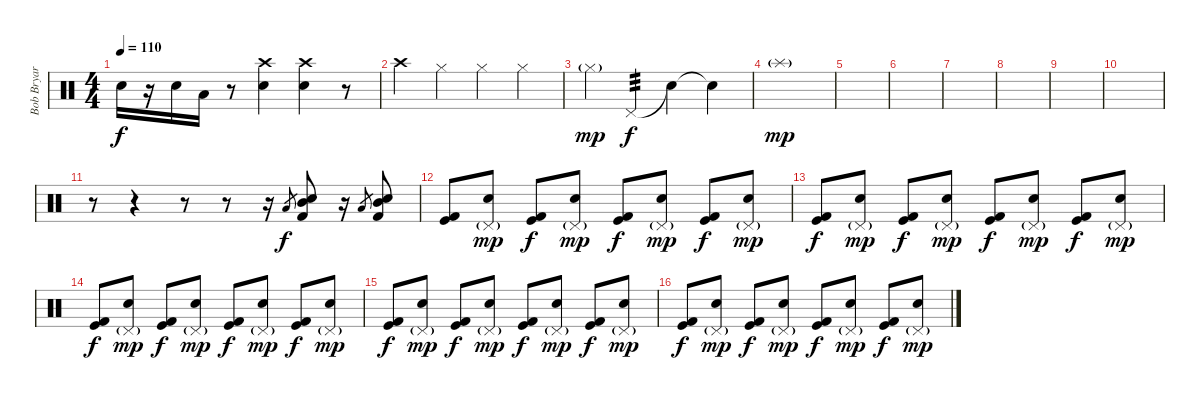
\track ("Bob Bryar [Drums]" "Bob Bryar ") {instrument percussion}
\staff {score}
\articulation defaults
\ts (4 4)
\tempo 110
\clef neutral
\ks c "Electric Snare (hit)".16{dy f}
r.16 "Electric Snare (hit)".16 "Low Tom (hit)".16 r.8 ("Crash high (hit)" "Electric Snare (hit)").4 ("Crash high (hit)" "Electric Snare (hit)").4 r.8 |
"Crash high (hit)".4 "Hi-Hat (closed)".4 "Hi-Hat (closed)".4 "Hi-Hat (closed)".4 |
"Hi-Hat (closed)"{g}.4{dy mp volume 0} "Pedal Hi-Hat (hit)".4{tp 3 dy f volume 16} "Snare (hit)"{t}.4 "Snare (hit)"{t}.4 |
"Splash (hit)"{g}.1{dy mp} |
|
|
|
|
|
|
r.8 r.4 r.8 r.8 r.16 "Low Tom (hit)".8{gr dy f} ("Mid Tom (hit)" "Electric Snare (hit)" "Kick (hit) 2").8{balance 4} r.16 "Low Tom (hit)".8{gr} ("Mid Tom (hit)" "Electric Snare (hit)" "Kick (hit) 2").8{balance 13} |
("Kick (hit)" "Kick (hit) 2").8{volume 16 balance 8} ("Pedal Hi-Hat (hit)"{g} "Electric Snare (hit)").8{dy mp} ("Kick (hit)" "Kick (hit) 2").8{dy f} ("Pedal Hi-Hat (hit)"{g} "Electric Snare (hit)").8{dy mp} ("Kick (hit)" "Kick (hit) 2").8{dy f} ("Pedal Hi-Hat (hit)"{g} "Electric Snare (hit)").8{dy mp} ("Kick (hit)" "Kick (hit) 2").8{dy f} ("Pedal Hi-Hat (hit)"{g} "Electric Snare (hit)").8{dy mp} |
("Kick (hit)" "Kick (hit) 2").8{dy f volume 16 balance 8} ("Pedal Hi-Hat (hit)"{g} "Electric Snare (hit)").8{dy mp} ("Kick (hit)" "Kick (hit) 2").8{dy f} ("Pedal Hi-Hat (hit)"{g} "Electric Snare (hit)").8{dy mp} ("Kick (hit)" "Kick (hit) 2").8{dy f} ("Pedal Hi-Hat (hit)"{g} "Electric Snare (hit)").8{dy mp} ("Kick (hit)" "Kick (hit) 2").8{dy f} ("Pedal Hi-Hat (hit)"{g} "Electric Snare (hit)").8{dy mp} |
("Kick (hit)" "Kick (hit) 2").8{dy f volume 16 balance 8} ("Pedal Hi-Hat (hit)"{g} "Electric Snare (hit)").8{dy mp} ("Kick (hit)" "Kick (hit) 2").8{dy f} ("Pedal Hi-Hat (hit)"{g} "Electric Snare (hit)").8{dy mp} ("Kick (hit)" "Kick (hit) 2").8{dy f} ("Pedal Hi-Hat (hit)"{g} "Electric Snare (hit)").8{dy mp} ("Kick (hit)" "Kick (hit) 2").8{dy f} ("Pedal Hi-Hat (hit)"{g} "Electric Snare (hit)").8{dy mp} |
("Kick (hit)" "Kick (hit) 2").8{dy f volume 16 balance 8} ("Pedal Hi-Hat (hit)"{g} "Electric Snare (hit)").8{dy mp} ("Kick (hit)" "Kick (hit) 2").8{dy f} ("Pedal Hi-Hat (hit)"{g} "Electric Snare (hit)").8{dy mp} ("Kick (hit)" "Kick (hit) 2").8{dy f} ("Pedal Hi-Hat (hit)"{g} "Electric Snare (hit)").8{dy mp} ("Kick (hit)" "Kick (hit) 2").8{dy f} ("Pedal Hi-Hat (hit)"{g} "Electric Snare (hit)").8{dy mp} |
("Kick (hit)" "Kick (hit) 2").8{dy f volume 16 balance 8} ("Pedal Hi-Hat (hit)"{g} "Electric Snare (hit)").8{dy mp} ("Kick (hit)" "Kick (hit) 2").8{dy f} ("Pedal Hi-Hat (hit)"{g} "Electric Snare (hit)").8{dy mp} ("Kick (hit)" "Kick (hit) 2").8{dy f} ("Pedal Hi-Hat (hit)"{g} "Electric Snare (hit)").8{dy mp} ("Kick (hit)" "Kick (hit) 2").8{dy f} ("Pedal Hi-Hat (hit)"{g} "Electric Snare (hit)").8{dy mp}
